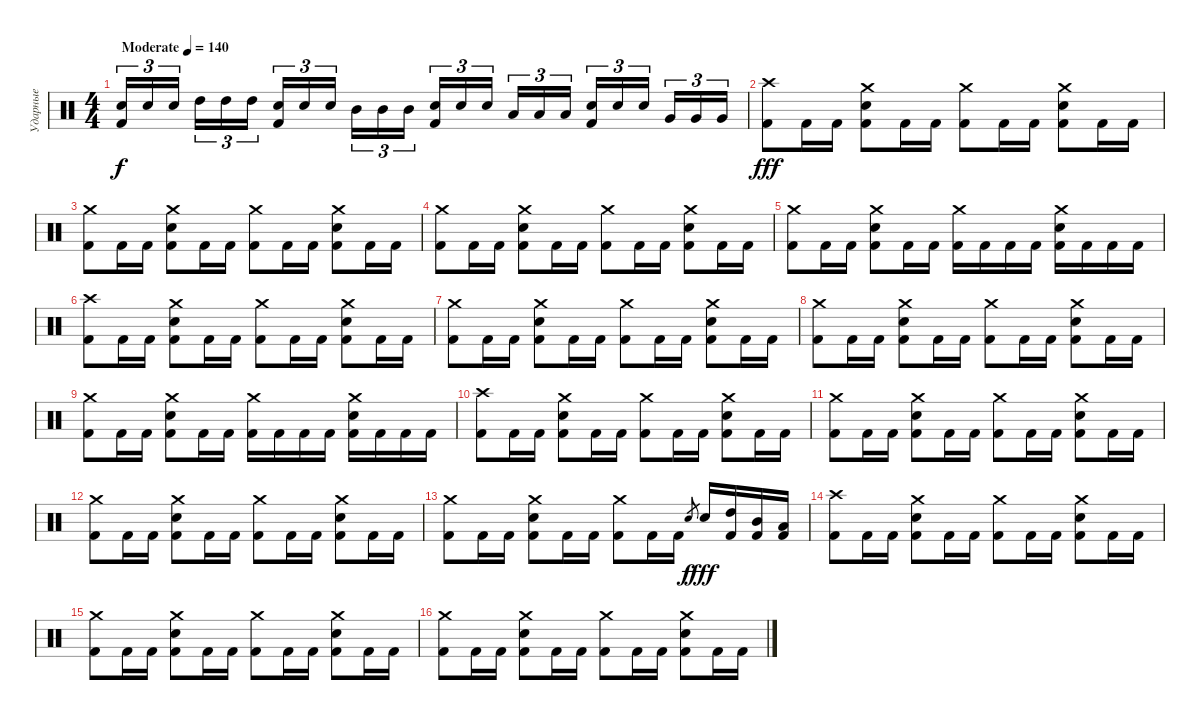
\track ("Ударные" "Ударные") {instrument percussion}
\staff {score}
\articulation defaults
\ts (4 4)
\tempo (140 "Moderate")
\clef neutral
\ks c
("Electric Snare (hit)" "Kick (hit) 2").16{tu (3 2) dy f} "Electric Snare (hit)".16{tu (3 2)} "Electric Snare (hit)".16{tu (3 2) beam splitsecondary} "High Tom (hit)".16{tu (3 2)} "High Tom (hit)".16{tu (3 2)} "High Tom (hit)".16{tu (3 2)} ("Electric Snare (hit)" "Kick (hit) 2").16{tu (3 2)} "Electric Snare (hit)".16{tu (3 2)} "Electric Snare (hit)".16{tu (3 2) beam splitsecondary} "Mid Tom (hit)".16{tu (3 2)} "Mid Tom (hit)".16{tu (3 2)} "Mid Tom (hit)".16{tu (3 2)} ("Electric Snare (hit)" "Kick (hit) 2").16{tu (3 2)} "Electric Snare (hit)".16{tu (3 2)} "Electric Snare (hit)".16{tu (3 2) beam splitsecondary} "Low Tom (hit)".16{tu (3 2)} "Low Tom (hit)".16{tu (3 2)} "Low Tom (hit)".16{tu (3 2)} ("Electric Snare (hit)" "Kick (hit) 2").16{tu (3 2)} "Electric Snare (hit)".16{tu (3 2)} "Electric Snare (hit)".16{tu (3 2) beam splitsecondary} "Very Low Tom (hit)".16{tu (3 2)} "Very Low Tom (hit)".16{tu (3 2)} "Very Low Tom (hit)".16{tu (3 2)} |
("Crash high (hit)" "Kick (hit) 2").8{dy fff} "Kick (hit) 2".16 "Kick (hit) 2".16 ("Crash medium (hit)" "Electric Snare (hit)" "Kick (hit) 2").8 "Kick (hit) 2".16 "Kick (hit) 2".16 ("Crash medium (hit)" "Kick (hit) 2").8 "Kick (hit) 2".16 "Kick (hit) 2".16 ("Crash medium (hit)" "Electric Snare (hit)" "Kick (hit) 2").8 "Kick (hit) 2".16 "Kick (hit) 2".16 |
("Crash medium (hit)" "Kick (hit) 2").8 "Kick (hit) 2".16 "Kick (hit) 2".16 ("Crash medium (hit)" "Electric Snare (hit)" "Kick (hit) 2").8 "Kick (hit) 2".16 "Kick (hit) 2".16 ("Crash medium (hit)" "Kick (hit) 2").8 "Kick (hit) 2".16 "Kick (hit) 2".16 ("Crash medium (hit)" "Electric Snare (hit)" "Kick (hit) 2").8 "Kick (hit) 2".16 "Kick (hit) 2".16 |
("Crash medium (hit)" "Kick (hit) 2").8 "Kick (hit) 2".16 "Kick (hit) 2".16 ("Crash medium (hit)" "Electric Snare (hit)" "Kick (hit) 2").8 "Kick (hit) 2".16 "Kick (hit) 2".16 ("Crash medium (hit)" "Kick (hit) 2").8 "Kick (hit) 2".16 "Kick (hit) 2".16 ("Crash medium (hit)" "Electric Snare (hit)" "Kick (hit) 2").8 "Kick (hit) 2".16 "Kick (hit) 2".16 |
("Crash medium (hit)" "Kick (hit) 2").8 "Kick (hit) 2".16 "Kick (hit) 2".16 ("Crash medium (hit)" "Electric Snare (hit)" "Kick (hit) 2").8 "Kick (hit) 2".16 "Kick (hit) 2".16 ("Crash medium (hit)" "Kick (hit) 2").16 "Kick (hit) 2".16 "Kick (hit) 2".16 "Kick (hit) 2".16 ("Crash medium (hit)" "Electric Snare (hit)" "Kick (hit) 2").16 "Kick (hit) 2".16 "Kick (hit) 2".16 "Kick (hit) 2".16 |
("Crash high (hit)" "Kick (hit) 2").8 "Kick (hit) 2".16 "Kick (hit) 2".16 ("Crash medium (hit)" "Electric Snare (hit)" "Kick (hit) 2").8 "Kick (hit) 2".16 "Kick (hit) 2".16 ("Crash medium (hit)" "Kick (hit) 2").8 "Kick (hit) 2".16 "Kick (hit) 2".16 ("Crash medium (hit)" "Electric Snare (hit)" "Kick (hit) 2").8 "Kick (hit) 2".16 "Kick (hit) 2".16 |
("Crash medium (hit)" "Kick (hit) 2").8 "Kick (hit) 2".16 "Kick (hit) 2".16 ("Crash medium (hit)" "Electric Snare (hit)" "Kick (hit) 2").8 "Kick (hit) 2".16 "Kick (hit) 2".16 ("Crash medium (hit)" "Kick (hit) 2").8 "Kick (hit) 2".16 "Kick (hit) 2".16 ("Crash medium (hit)" "Electric Snare (hit)" "Kick (hit) 2").8 "Kick (hit) 2".16 "Kick (hit) 2".16 |
("Crash medium (hit)" "Kick (hit) 2").8 "Kick (hit) 2".16 "Kick (hit) 2".16 ("Crash medium (hit)" "Electric Snare (hit)" "Kick (hit) 2").8 "Kick (hit) 2".16 "Kick (hit) 2".16 ("Crash medium (hit)" "Kick (hit) 2").8 "Kick (hit) 2".16 "Kick (hit) 2".16 ("Crash medium (hit)" "Electric Snare (hit)" "Kick (hit) 2").8 "Kick (hit) 2".16 "Kick (hit) 2".16 |
("Crash medium (hit)" "Kick (hit) 2").8 "Kick (hit) 2".16 "Kick (hit) 2".16 ("Crash medium (hit)" "Electric Snare (hit)" "Kick (hit) 2").8 "Kick (hit) 2".16 "Kick (hit) 2".16 ("Crash medium (hit)" "Kick (hit) 2").16 "Kick (hit) 2".16 "Kick (hit) 2".16 "Kick (hit) 2".16 ("Crash medium (hit)" "Electric Snare (hit)" "Kick (hit) 2").16 "Kick (hit) 2".16 "Kick (hit) 2".16 "Kick (hit) 2".16 |
("Crash high (hit)" "Kick (hit) 2").8 "Kick (hit) 2".16 "Kick (hit) 2".16 ("Crash medium (hit)" "Electric Snare (hit)" "Kick (hit) 2").8 "Kick (hit) 2".16 "Kick (hit) 2".16 ("Crash medium (hit)" "Kick (hit) 2").8 "Kick (hit) 2".16 "Kick (hit) 2".16 ("Crash medium (hit)" "Electric Snare (hit)" "Kick (hit) 2").8 "Kick (hit) 2".16 "Kick (hit) 2".16 |
("Crash medium (hit)" "Kick (hit) 2").8 "Kick (hit) 2".16 "Kick (hit) 2".16 ("Crash medium (hit)" "Electric Snare (hit)" "Kick (hit) 2").8 "Kick (hit) 2".16 "Kick (hit) 2".16 ("Crash medium (hit)" "Kick (hit) 2").8 "Kick (hit) 2".16 "Kick (hit) 2".16 ("Crash medium (hit)" "Electric Snare (hit)" "Kick (hit) 2").8 "Kick (hit) 2".16 "Kick (hit) 2".16 |
("Crash medium (hit)" "Kick (hit) 2").8 "Kick (hit) 2".16 "Kick (hit) 2".16 ("Crash medium (hit)" "Electric Snare (hit)" "Kick (hit) 2").8 "Kick (hit) 2".16 "Kick (hit) 2".16 ("Crash medium (hit)" "Kick (hit) 2").8 "Kick (hit) 2".16 "Kick (hit) 2".16 ("Crash medium (hit)" "Electric Snare (hit)" "Kick (hit) 2").8 "Kick (hit) 2".16 "Kick (hit) 2".16 |
("Crash medium (hit)" "Kick (hit) 2").8 "Kick (hit) 2".16 "Kick (hit) 2".16 ("Crash medium (hit)" "Electric Snare (hit)" "Kick (hit) 2").8 "Kick (hit) 2".16 "Kick (hit) 2".16 ("Crash medium (hit)" "Kick (hit) 2").8 "Kick (hit) 2".16 "Kick (hit) 2".16 "Electric Snare (hit)".8{gr dy f} "Electric Snare (hit)".16{dy fff} ("High Tom (hit)" "Kick (hit) 2").16 ("Mid Tom (hit)" "Kick (hit) 2").16 ("Low Tom (hit)" "Kick (hit) 2").16 |
("Crash high (hit)" "Kick (hit) 2").8 "Kick (hit) 2".16 "Kick (hit) 2".16 ("Crash medium (hit)" "Electric Snare (hit)" "Kick (hit) 2").8 "Kick (hit) 2".16 "Kick (hit) 2".16 ("Crash medium (hit)" "Kick (hit) 2").8 "Kick (hit) 2".16 "Kick (hit) 2".16 ("Crash medium (hit)" "Electric Snare (hit)" "Kick (hit) 2").8 "Kick (hit) 2".16 "Kick (hit) 2".16 |
("Crash medium (hit)" "Kick (hit) 2").8 "Kick (hit) 2".16 "Kick (hit) 2".16 ("Crash medium (hit)" "Electric Snare (hit)" "Kick (hit) 2").8 "Kick (hit) 2".16 "Kick (hit) 2".16 ("Crash medium (hit)" "Kick (hit) 2").8 "Kick (hit) 2".16 "Kick (hit) 2".16 ("Crash medium (hit)" "Electric Snare (hit)" "Kick (hit) 2").8 "Kick (hit) 2".16 "Kick (hit) 2".16 |
("Crash medium (hit)" "Kick (hit) 2").8 "Kick (hit) 2".16 "Kick (hit) 2".16 ("Crash medium (hit)" "Electric Snare (hit)" "Kick (hit) 2").8 "Kick (hit) 2".16 "Kick (hit) 2".16 ("Crash medium (hit)" "Kick (hit) 2").8 "Kick (hit) 2".16 "Kick (hit) 2".16 ("Crash medium (hit)" "Electric Snare (hit)" "Kick (hit) 2").8 "Kick (hit) 2".16 "Kick (hit) 2".16
